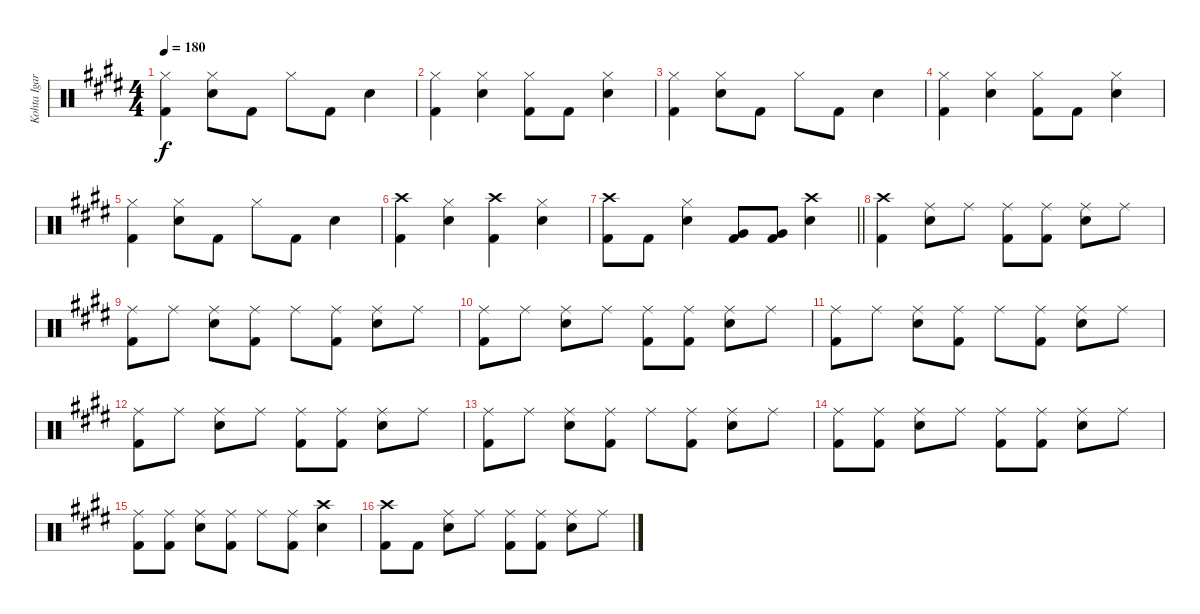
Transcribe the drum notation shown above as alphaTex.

\track ("Kohta Igarashi" "Kohta Igar") {instrument percussion}
\staff {score}
\articulation defaults
\ts (4 4)
\tempo 180
\clef neutral
\ks e
("Hi-Hat (closed)" "Kick (hit) 2").4{dy f} ("Hi-Hat (closed)" "Electric Snare (hit)").8 "Kick (hit) 2".8 "Hi-Hat (closed)".8 "Kick (hit) 2".8 "Electric Snare (hit)".4 |
("Hi-Hat (closed)" "Kick (hit) 2").4 ("Hi-Hat (closed)" "Electric Snare (hit)").4 ("Hi-Hat (closed)" "Kick (hit) 2").8 "Kick (hit) 2".8 ("Hi-Hat (closed)" "Electric Snare (hit)").4 |
("Hi-Hat (closed)" "Kick (hit) 2").4 ("Hi-Hat (closed)" "Electric Snare (hit)").8 "Kick (hit) 2".8 "Hi-Hat (closed)".8 "Kick (hit) 2".8 "Electric Snare (hit)".4 |
("Hi-Hat (closed)" "Kick (hit) 2").4 ("Hi-Hat (closed)" "Electric Snare (hit)").4 ("Hi-Hat (closed)" "Kick (hit) 2").8 "Kick (hit) 2".8 ("Hi-Hat (closed)" "Electric Snare (hit)").4 |
("Hi-Hat (closed)" "Kick (hit) 2").4 ("Hi-Hat (closed)" "Electric Snare (hit)").8 "Kick (hit) 2".8 "Hi-Hat (closed)".8 "Kick (hit) 2".8 "Electric Snare (hit)".4 |
("Crash high (hit)" "Kick (hit) 2").4 ("Hi-Hat (closed)" "Electric Snare (hit)").4 ("Crash high (hit)" "Kick (hit) 2").4 ("Hi-Hat (closed)" "Electric Snare (hit)").4 |
\barLineRight lightlight
("Crash high (hit)" "Kick (hit) 2").8 "Kick (hit) 2".8 ("Hi-Hat (closed)" "Electric Snare (hit)").4 ("Very Low Tom (hit)" "Kick (hit) 2").8 ("Very Low Tom (hit)" "Kick (hit) 2").8 ("Crash high (hit)" "Electric Snare (hit)").4 |
("Crash high (hit)" "Kick (hit) 2").4 ("Ride (middle)" "Electric Snare (hit)").8 "Ride (middle)".8 ("Ride (middle)" "Kick (hit) 2").8 ("Ride (middle)" "Kick (hit) 2").8 ("Ride (middle)" "Electric Snare (hit)").8 "Ride (middle)".8 |
("Ride (middle)" "Kick (hit) 2").8 "Ride (middle)".8 ("Ride (middle)" "Electric Snare (hit)").8 ("Ride (middle)" "Kick (hit) 2").8 "Ride (middle)".8 ("Ride (middle)" "Kick (hit) 2").8 ("Ride (middle)" "Electric Snare (hit)").8 "Ride (middle)".8 |
("Ride (middle)" "Kick (hit) 2").8 "Ride (middle)".8 ("Ride (middle)" "Electric Snare (hit)").8 "Ride (middle)".8 ("Ride (middle)" "Kick (hit) 2").8 ("Ride (middle)" "Kick (hit) 2").8 ("Ride (middle)" "Electric Snare (hit)").8 "Ride (middle)".8 |
("Ride (middle)" "Kick (hit) 2").8 "Ride (middle)".8 ("Ride (middle)" "Electric Snare (hit)").8 ("Ride (middle)" "Kick (hit) 2").8 "Ride (middle)".8 ("Ride (middle)" "Kick (hit) 2").8 ("Ride (middle)" "Electric Snare (hit)").8 "Ride (middle)".8 |
("Ride (middle)" "Kick (hit) 2").8 "Ride (middle)".8 ("Ride (middle)" "Electric Snare (hit)").8 "Ride (middle)".8 ("Ride (middle)" "Kick (hit) 2").8 ("Ride (middle)" "Kick (hit) 2").8 ("Ride (middle)" "Electric Snare (hit)").8 "Ride (middle)".8 |
("Ride (middle)" "Kick (hit) 2").8 "Ride (middle)".8 ("Ride (middle)" "Electric Snare (hit)").8 ("Ride (middle)" "Kick (hit) 2").8 "Ride (middle)".8 ("Ride (middle)" "Kick (hit) 2").8 ("Ride (middle)" "Electric Snare (hit)").8 "Ride (middle)".8 |
("Ride (middle)" "Kick (hit) 2").8 ("Ride (middle)" "Kick (hit) 2").8 ("Ride (middle)" "Electric Snare (hit)").8 "Ride (middle)".8 ("Ride (middle)" "Kick (hit) 2").8 ("Ride (middle)" "Kick (hit) 2").8 ("Ride (middle)" "Electric Snare (hit)").8 "Ride (middle)".8 |
("Ride (middle)" "Kick (hit) 2").8 ("Ride (middle)" "Kick (hit) 2").8 ("Ride (middle)" "Electric Snare (hit)").8 ("Ride (middle)" "Kick (hit) 2").8 "Ride (middle)".8 ("Ride (middle)" "Kick (hit) 2").8 ("Crash high (hit)" "Electric Snare (hit)").4 |
("Crash high (hit)" "Kick (hit) 2").8 "Kick (hit) 2".8 ("Ride (middle)" "Electric Snare (hit)").8 "Ride (middle)".8 ("Ride (middle)" "Kick (hit) 2").8 ("Ride (middle)" "Kick (hit) 2").8 ("Ride (middle)" "Electric Snare (hit)").8 "Ride (middle)".8
